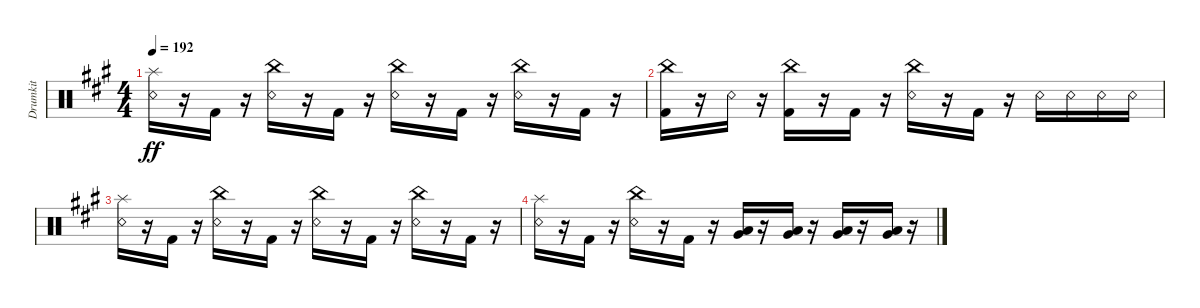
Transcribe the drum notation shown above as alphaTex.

\track ("Drumkit" "Drumkit") {instrument percussion}
\staff {score}
\articulation defaults
\ts (4 4)
\tempo 192
\clef neutral
\ks a
("Snare (rim shot)" "Splash (hit)").16{dy ff} r.16 "Kick (hit) 2".16 r.16 ("Snare (rim shot)" "China (hit)").16 r.16 "Kick (hit) 2".16 r.16 ("Snare (rim shot)" "China (hit)").16 r.16 "Kick (hit) 2".16 r.16 ("Snare (rim shot)" "China (hit)").16 r.16 "Kick (hit) 2".16 r.16 |
("Kick (hit) 2" "China (hit)").16 r.16 "Snare (rim shot)".16 r.16 ("Kick (hit) 2" "China (hit)").16 r.16 "Kick (hit) 2".16 r.16 ("Snare (rim shot)" "China (hit)").16 r.16 "Kick (hit) 2".16 r.16 "Snare (rim shot)".16 "Snare (rim shot)".16 "Snare (rim shot)".16 "Snare (rim shot)".16 |
("Snare (rim shot)" "Splash (hit)").16 r.16 "Kick (hit) 2".16 r.16 ("Snare (rim shot)" "China (hit)").16 r.16 "Kick (hit) 2".16 r.16 ("Snare (rim shot)" "China (hit)").16 r.16 "Kick (hit) 2".16 r.16 ("Snare (rim shot)" "China (hit)").16 r.16 "Kick (hit) 2".16 r.16 |
("Snare (rim shot)" "Splash (hit)").16 r.16 "Kick (hit) 2".16 r.16 ("Snare (rim shot)" "China (hit)").16 r.16 "Kick (hit) 2".16 r.16 ("Very Low Tom (hit)" "Low Tom (hit)").16 r.16 ("Low Tom (hit)" "Very Low Tom (hit)").16 r.16 ("Very Low Tom (hit)" "Low Tom (hit)").16 r.16 ("Very Low Tom (hit)" "Low Tom (hit)").16 r.16
